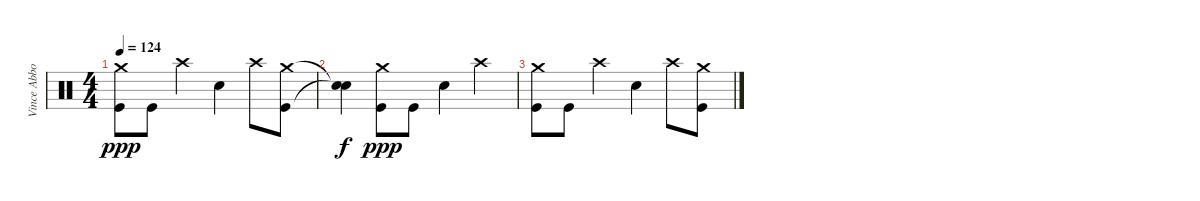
\track ("Vince Abbott (Drums)" "Vince Abbo") {instrument percussion}
\staff {score}
\articulation defaults
\ts (4 4)
\tempo 124
\clef neutral
\ks c
("Crash medium (hit)" "Kick (hit)").8{dy ppp} "Kick (hit)".8 "Crash high (hit)".4 "Electric Snare (hit)".4 "Crash high (hit)".8 ("Kick (hit)" "Crash medium (hit)").8 |
("Snare (hit)"{t} "Snare (hit)"{t}).4{dy f} ("Crash medium (hit)" "Kick (hit)").8{dy ppp} "Kick (hit)".8 "Electric Snare (hit)".4 "Crash high (hit)".4 |
("Crash medium (hit)" "Kick (hit)").8 "Kick (hit)".8 "Crash high (hit)".4 "Electric Snare (hit)".4 "Crash high (hit)".8 ("Kick (hit)" "Crash medium (hit)").8
